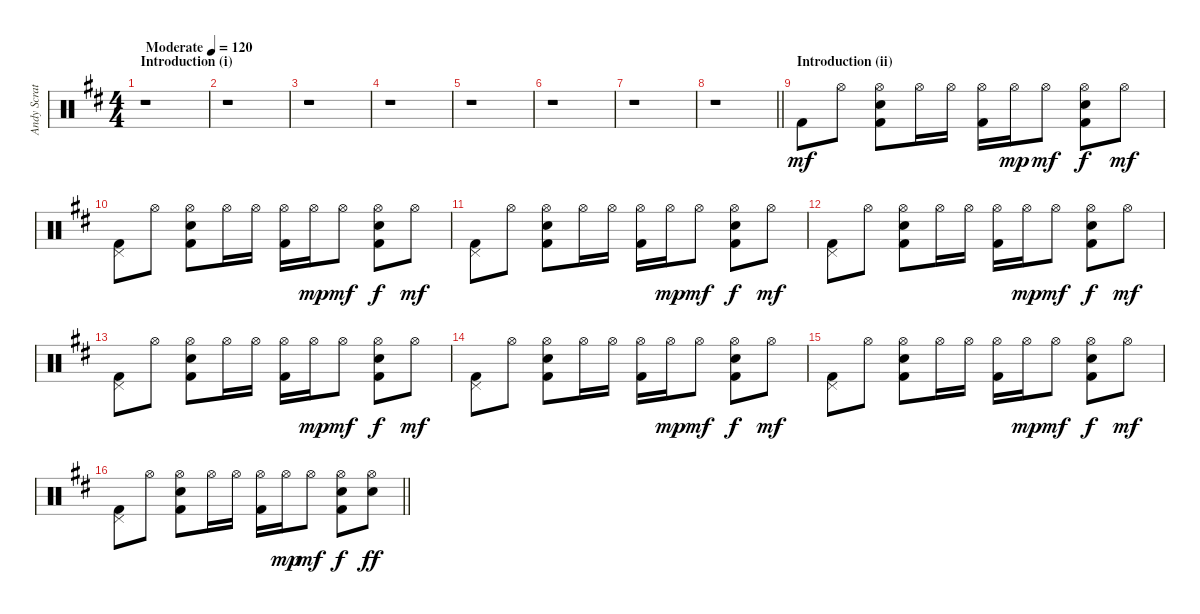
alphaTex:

\track ("Andy Scratchen (Drums)" "Andy Scrat") {instrument percussion}
\staff {score}
\articulation defaults
\ts (4 4)
\section ("" "Introduction (i)")
\tempo (120 "Moderate")
\clef neutral
\ks bminor
r.1{dy mf} |
r.1 |
r.1 |
r.1 |
r.1 |
r.1 |
r.1 |
\barLineRight lightlight
r.1 |
\section ("" "Introduction (ii)")
"Kick (hit) 2".8 "Hi-Hat (open)".8 ("Hi-Hat (open)" "Snare (hit) 2" "Kick (hit) 2").8 "Hi-Hat (open)".16 "Hi-Hat (open)".16 ("Hi-Hat (open)" "Kick (hit) 2").16 "Hi-Hat (open)".16{dy mp} "Hi-Hat (open)".8{dy mf} ("Hi-Hat (open)" "Snare (hit) 2" "Kick (hit) 2").8{dy f} "Hi-Hat (open)".8{dy mf} |
("Pedal Hi-Hat (hit)" "Kick (hit) 2").8 "Hi-Hat (open)".8 ("Hi-Hat (open)" "Snare (hit) 2" "Kick (hit) 2").8 "Hi-Hat (open)".16 "Hi-Hat (open)".16 ("Hi-Hat (open)" "Kick (hit) 2").16 "Hi-Hat (open)".16{dy mp} "Hi-Hat (open)".8{dy mf} ("Hi-Hat (open)" "Snare (hit) 2" "Kick (hit) 2").8{dy f} "Hi-Hat (open)".8{dy mf} |
("Pedal Hi-Hat (hit)" "Kick (hit) 2").8 "Hi-Hat (open)".8 ("Hi-Hat (open)" "Snare (hit) 2" "Kick (hit) 2").8 "Hi-Hat (open)".16 "Hi-Hat (open)".16 ("Hi-Hat (open)" "Kick (hit) 2").16 "Hi-Hat (open)".16{dy mp} "Hi-Hat (open)".8{dy mf} ("Hi-Hat (open)" "Snare (hit) 2" "Kick (hit) 2").8{dy f} "Hi-Hat (open)".8{dy mf} |
("Pedal Hi-Hat (hit)" "Kick (hit) 2").8 "Hi-Hat (open)".8 ("Hi-Hat (open)" "Snare (hit) 2" "Kick (hit) 2").8 "Hi-Hat (open)".16 "Hi-Hat (open)".16 ("Hi-Hat (open)" "Kick (hit) 2").16 "Hi-Hat (open)".16{dy mp} "Hi-Hat (open)".8{dy mf} ("Hi-Hat (open)" "Snare (hit) 2" "Kick (hit) 2").8{dy f} "Hi-Hat (open)".8{dy mf} |
("Pedal Hi-Hat (hit)" "Kick (hit) 2").8 "Hi-Hat (open)".8 ("Hi-Hat (open)" "Snare (hit) 2" "Kick (hit) 2").8 "Hi-Hat (open)".16 "Hi-Hat (open)".16 ("Hi-Hat (open)" "Kick (hit) 2").16 "Hi-Hat (open)".16{dy mp} "Hi-Hat (open)".8{dy mf} ("Hi-Hat (open)" "Snare (hit) 2" "Kick (hit) 2").8{dy f} "Hi-Hat (open)".8{dy mf} |
("Pedal Hi-Hat (hit)" "Kick (hit) 2").8 "Hi-Hat (open)".8 ("Hi-Hat (open)" "Snare (hit) 2" "Kick (hit) 2").8 "Hi-Hat (open)".16 "Hi-Hat (open)".16 ("Hi-Hat (open)" "Kick (hit) 2").16 "Hi-Hat (open)".16{dy mp} "Hi-Hat (open)".8{dy mf} ("Hi-Hat (open)" "Snare (hit) 2" "Kick (hit) 2").8{dy f} "Hi-Hat (open)".8{dy mf} |
("Pedal Hi-Hat (hit)" "Kick (hit) 2").8 "Hi-Hat (open)".8 ("Hi-Hat (open)" "Snare (hit) 2" "Kick (hit) 2").8 "Hi-Hat (open)".16 "Hi-Hat (open)".16 ("Hi-Hat (open)" "Kick (hit) 2").16 "Hi-Hat (open)".16{dy mp} "Hi-Hat (open)".8{dy mf} ("Hi-Hat (open)" "Snare (hit) 2" "Kick (hit) 2").8{dy f} "Hi-Hat (open)".8{dy mf} |
\barLineRight lightlight
("Pedal Hi-Hat (hit)" "Kick (hit) 2").8 "Hi-Hat (open)".8 ("Hi-Hat (open)" "Snare (hit) 2" "Kick (hit) 2").8 "Hi-Hat (open)".16 "Hi-Hat (open)".16 ("Hi-Hat (open)" "Kick (hit) 2").16 "Hi-Hat (open)".16{dy mp} "Hi-Hat (open)".8{dy mf} ("Hi-Hat (open)" "Snare (hit) 2" "Kick (hit) 2").8{dy f} ("Hi-Hat (open)" "Snare (hit) 2").8{dy ff}
